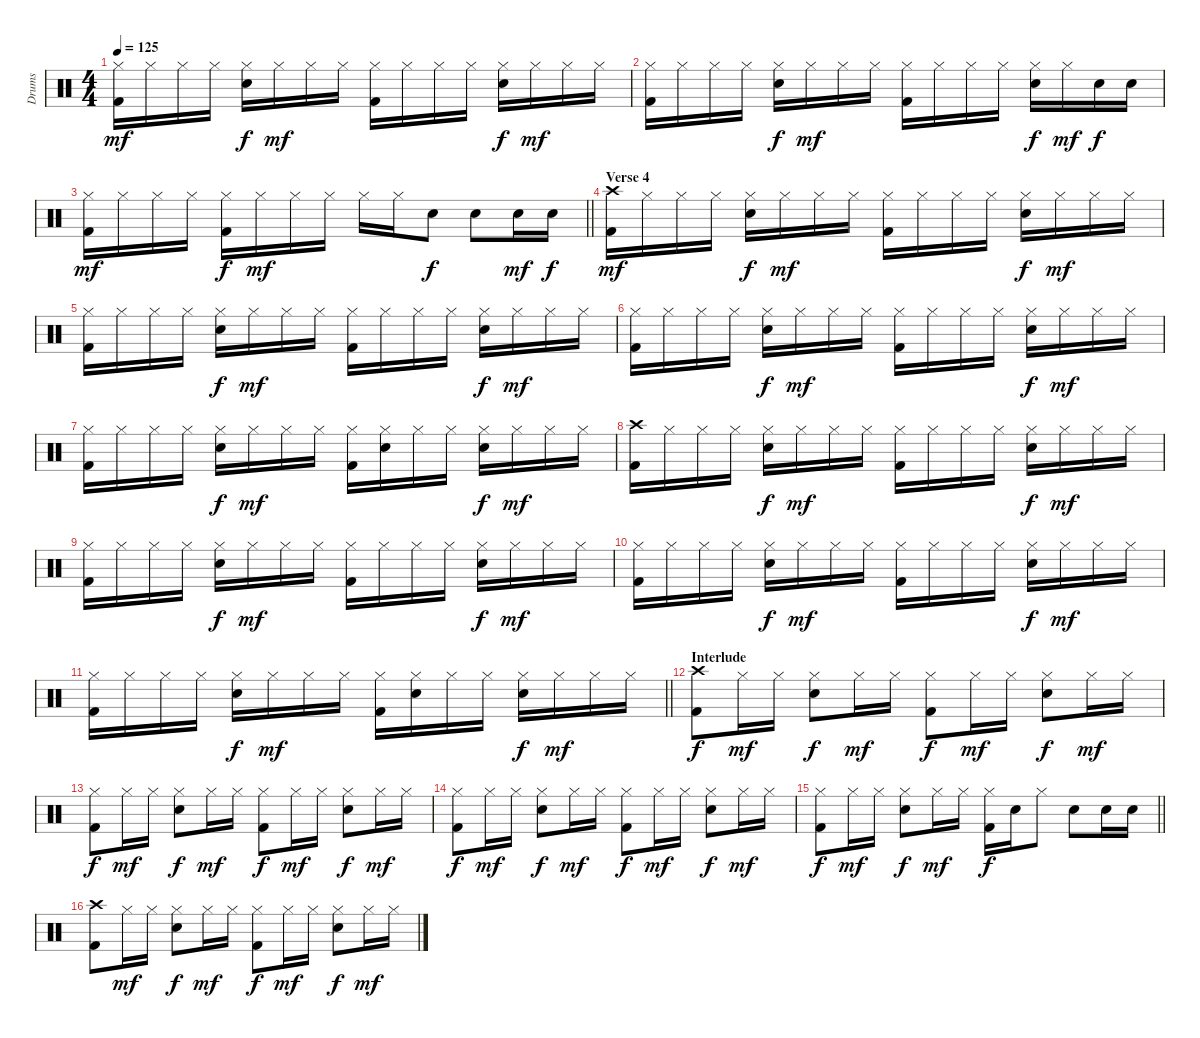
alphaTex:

\track ("Drums" "Drums") {instrument percussion}
\staff {score}
\articulation defaults
\ts (4 4)
\tempo 125
\clef neutral
\ks c
("Hi-Hat (closed)" "Kick (hit) 2").16{dy mf} "Hi-Hat (closed)".16 "Hi-Hat (closed)".16 "Hi-Hat (closed)".16 ("Hi-Hat (closed)" "Snare (hit) 2").16{dy f} "Hi-Hat (closed)".16{dy mf} "Hi-Hat (closed)".16 "Hi-Hat (closed)".16 ("Hi-Hat (closed)" "Kick (hit) 2").16 "Hi-Hat (closed)".16 "Hi-Hat (closed)".16 "Hi-Hat (closed)".16 ("Hi-Hat (closed)" "Snare (hit) 2").16{dy f} "Hi-Hat (closed)".16{dy mf} "Hi-Hat (closed)".16 "Hi-Hat (closed)".16 |
("Hi-Hat (closed)" "Kick (hit) 2").16 "Hi-Hat (closed)".16 "Hi-Hat (closed)".16 "Hi-Hat (closed)".16 ("Hi-Hat (closed)" "Snare (hit) 2").16{dy f} "Hi-Hat (closed)".16{dy mf} "Hi-Hat (closed)".16 "Hi-Hat (closed)".16 ("Hi-Hat (closed)" "Kick (hit) 2").16 "Hi-Hat (closed)".16 "Hi-Hat (closed)".16 "Hi-Hat (closed)".16 ("Hi-Hat (closed)" "Snare (hit) 2").16{dy f} "Hi-Hat (closed)".16{dy mf} "Snare (hit) 2".16{dy f} "Snare (hit) 2".16 |
\barLineRight lightlight
("Hi-Hat (closed)" "Kick (hit) 2").16{dy mf} "Hi-Hat (closed)".16 "Hi-Hat (closed)".16 "Hi-Hat (closed)".16 ("Hi-Hat (closed)" "Kick (hit) 2").16{dy f} "Hi-Hat (closed)".16{dy mf} "Hi-Hat (closed)".16 "Hi-Hat (closed)".16 "Hi-Hat (closed)".16 "Hi-Hat (closed)".16 "Snare (hit) 2".8{dy f} "Snare (hit) 2".8 "Snare (hit) 2".16{dy mf} "Snare (hit) 2".16{dy f} |
\section ("" "Verse 4")
("Crash high (hit)" "Kick (hit) 2").16{dy mf} "Hi-Hat (closed)".16 "Hi-Hat (closed)".16 "Hi-Hat (closed)".16 ("Hi-Hat (closed)" "Snare (hit) 2").16{dy f} "Hi-Hat (closed)".16{dy mf} "Hi-Hat (closed)".16 "Hi-Hat (closed)".16 ("Hi-Hat (closed)" "Kick (hit) 2").16 "Hi-Hat (closed)".16 "Hi-Hat (closed)".16 "Hi-Hat (closed)".16 ("Hi-Hat (closed)" "Snare (hit) 2").16{dy f} "Hi-Hat (closed)".16{dy mf} "Hi-Hat (closed)".16 "Hi-Hat (closed)".16 |
("Hi-Hat (closed)" "Kick (hit) 2").16 "Hi-Hat (closed)".16 "Hi-Hat (closed)".16 "Hi-Hat (closed)".16 ("Hi-Hat (closed)" "Snare (hit) 2").16{dy f} "Hi-Hat (closed)".16{dy mf} "Hi-Hat (closed)".16 "Hi-Hat (closed)".16 ("Hi-Hat (closed)" "Kick (hit) 2").16 "Hi-Hat (closed)".16 "Hi-Hat (closed)".16 "Hi-Hat (closed)".16 ("Hi-Hat (closed)" "Snare (hit) 2").16{dy f} "Hi-Hat (closed)".16{dy mf} "Hi-Hat (closed)".16 "Hi-Hat (closed)".16 |
("Hi-Hat (closed)" "Kick (hit) 2").16 "Hi-Hat (closed)".16 "Hi-Hat (closed)".16 "Hi-Hat (closed)".16 ("Hi-Hat (closed)" "Snare (hit) 2").16{dy f} "Hi-Hat (closed)".16{dy mf} "Hi-Hat (closed)".16 "Hi-Hat (closed)".16 ("Hi-Hat (closed)" "Kick (hit) 2").16 "Hi-Hat (closed)".16 "Hi-Hat (closed)".16 "Hi-Hat (closed)".16 ("Hi-Hat (closed)" "Snare (hit) 2").16{dy f} "Hi-Hat (closed)".16{dy mf} "Hi-Hat (closed)".16 "Hi-Hat (closed)".16 |
("Hi-Hat (closed)" "Kick (hit) 2").16 "Hi-Hat (closed)".16 "Hi-Hat (closed)".16 "Hi-Hat (closed)".16 ("Hi-Hat (closed)" "Snare (hit) 2").16{dy f} "Hi-Hat (closed)".16{dy mf} "Hi-Hat (closed)".16 "Hi-Hat (closed)".16 ("Hi-Hat (closed)" "Kick (hit) 2").16 ("Hi-Hat (closed)" "Snare (hit) 2").16 "Hi-Hat (closed)".16 "Hi-Hat (closed)".16 ("Hi-Hat (closed)" "Snare (hit) 2").16{dy f} "Hi-Hat (closed)".16{dy mf} "Hi-Hat (closed)".16 "Hi-Hat (closed)".16 |
("Crash high (hit)" "Kick (hit) 2").16 "Hi-Hat (closed)".16 "Hi-Hat (closed)".16 "Hi-Hat (closed)".16 ("Hi-Hat (closed)" "Snare (hit) 2").16{dy f} "Hi-Hat (closed)".16{dy mf} "Hi-Hat (closed)".16 "Hi-Hat (closed)".16 ("Hi-Hat (closed)" "Kick (hit) 2").16 "Hi-Hat (closed)".16 "Hi-Hat (closed)".16 "Hi-Hat (closed)".16 ("Hi-Hat (closed)" "Snare (hit) 2").16{dy f} "Hi-Hat (closed)".16{dy mf} "Hi-Hat (closed)".16 "Hi-Hat (closed)".16 |
("Hi-Hat (closed)" "Kick (hit) 2").16 "Hi-Hat (closed)".16 "Hi-Hat (closed)".16 "Hi-Hat (closed)".16 ("Hi-Hat (closed)" "Snare (hit) 2").16{dy f} "Hi-Hat (closed)".16{dy mf} "Hi-Hat (closed)".16 "Hi-Hat (closed)".16 ("Hi-Hat (closed)" "Kick (hit) 2").16 "Hi-Hat (closed)".16 "Hi-Hat (closed)".16 "Hi-Hat (closed)".16 ("Hi-Hat (closed)" "Snare (hit) 2").16{dy f} "Hi-Hat (closed)".16{dy mf} "Hi-Hat (closed)".16 "Hi-Hat (closed)".16 |
("Hi-Hat (closed)" "Kick (hit) 2").16 "Hi-Hat (closed)".16 "Hi-Hat (closed)".16 "Hi-Hat (closed)".16 ("Hi-Hat (closed)" "Snare (hit) 2").16{dy f} "Hi-Hat (closed)".16{dy mf} "Hi-Hat (closed)".16 "Hi-Hat (closed)".16 ("Hi-Hat (closed)" "Kick (hit) 2").16 "Hi-Hat (closed)".16 "Hi-Hat (closed)".16 "Hi-Hat (closed)".16 ("Hi-Hat (closed)" "Snare (hit) 2").16{dy f} "Hi-Hat (closed)".16{dy mf} "Hi-Hat (closed)".16 "Hi-Hat (closed)".16 |
\barLineRight lightlight
("Hi-Hat (closed)" "Kick (hit) 2").16 "Hi-Hat (closed)".16 "Hi-Hat (closed)".16 "Hi-Hat (closed)".16 ("Hi-Hat (closed)" "Snare (hit) 2").16{dy f} "Hi-Hat (closed)".16{dy mf} "Hi-Hat (closed)".16 "Hi-Hat (closed)".16 ("Hi-Hat (closed)" "Kick (hit) 2").16 ("Hi-Hat (closed)" "Snare (hit) 2").16 "Hi-Hat (closed)".16 "Hi-Hat (closed)".16 ("Hi-Hat (closed)" "Snare (hit) 2").16{dy f} "Hi-Hat (closed)".16{dy mf} "Hi-Hat (closed)".16 "Hi-Hat (closed)".16 |
\section ("" "Interlude")
("Crash high (hit)" "Kick (hit) 2").8{dy f} "Hi-Hat (closed)".16{dy mf} "Hi-Hat (closed)".16 ("Hi-Hat (closed)" "Snare (hit) 2").8{dy f} "Hi-Hat (closed)".16{dy mf} "Hi-Hat (closed)".16 ("Hi-Hat (closed)" "Kick (hit) 2").8{dy f} "Hi-Hat (closed)".16{dy mf} "Hi-Hat (closed)".16 ("Hi-Hat (closed)" "Snare (hit) 2").8{dy f} "Hi-Hat (closed)".16{dy mf} "Hi-Hat (closed)".16 |
("Hi-Hat (closed)" "Kick (hit) 2").8{dy f} "Hi-Hat (closed)".16{dy mf} "Hi-Hat (closed)".16 ("Hi-Hat (closed)" "Snare (hit) 2").8{dy f} "Hi-Hat (closed)".16{dy mf} "Hi-Hat (closed)".16 ("Hi-Hat (closed)" "Kick (hit) 2").8{dy f} "Hi-Hat (closed)".16{dy mf} "Hi-Hat (closed)".16 ("Hi-Hat (closed)" "Snare (hit) 2").8{dy f} "Hi-Hat (closed)".16{dy mf} "Hi-Hat (closed)".16 |
("Hi-Hat (closed)" "Kick (hit) 2").8{dy f} "Hi-Hat (closed)".16{dy mf} "Hi-Hat (closed)".16 ("Hi-Hat (closed)" "Snare (hit) 2").8{dy f} "Hi-Hat (closed)".16{dy mf} "Hi-Hat (closed)".16 ("Hi-Hat (closed)" "Kick (hit) 2").8{dy f} "Hi-Hat (closed)".16{dy mf} "Hi-Hat (closed)".16 ("Hi-Hat (closed)" "Snare (hit) 2").8{dy f} "Hi-Hat (closed)".16{dy mf} "Hi-Hat (closed)".16 |
\barLineRight lightlight
("Hi-Hat (closed)" "Kick (hit) 2").8{dy f} "Hi-Hat (closed)".16{dy mf} "Hi-Hat (closed)".16 ("Hi-Hat (closed)" "Snare (hit) 2").8{dy f} "Hi-Hat (closed)".16{dy mf} "Hi-Hat (closed)".16 ("Hi-Hat (closed)" "Kick (hit) 2").16{dy f} "Snare (hit) 2".16 "Hi-Hat (closed)".8 "Snare (hit) 2".8 "Snare (hit) 2".16 "Snare (hit) 2".16 |
("Crash high (hit)" "Kick (hit) 2").8 "Hi-Hat (closed)".16{dy mf} "Hi-Hat (closed)".16 ("Hi-Hat (closed)" "Snare (hit) 2").8{dy f} "Hi-Hat (closed)".16{dy mf} "Hi-Hat (closed)".16 ("Hi-Hat (closed)" "Kick (hit) 2").8{dy f} "Hi-Hat (closed)".16{dy mf} "Hi-Hat (closed)".16 ("Hi-Hat (closed)" "Snare (hit) 2").8{dy f} "Hi-Hat (closed)".16{dy mf} "Hi-Hat (closed)".16
